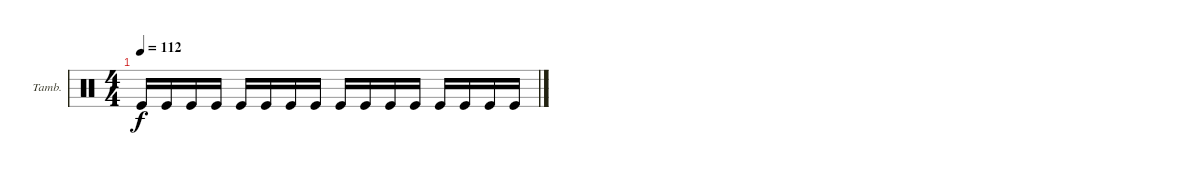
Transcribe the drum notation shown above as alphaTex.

\defaultSystemsLayout 4
\bracketExtendMode groupsimilarinstruments
\firstSystemTrackNameOrientation horizontal
\otherSystemsTrackNameOrientation horizontal
\track ("Tambourine" "Tamb.") {instrument percussion}
\staff {score}
\articulation defaults
\ts (4 4)
\tempo 112
\clef neutral
\ks c "Kick (hit)".16{dy f} "Kick (hit)".16 "Kick (hit)".16 "Kick (hit)".16 "Kick (hit)".16 "Kick (hit)".16 "Kick (hit)".16 "Kick (hit)".16 "Kick (hit)".16 "Kick (hit)".16 "Kick (hit)".16 "Kick (hit)".16 "Kick (hit)".16 "Kick (hit)".16 "Kick (hit)".16 "Kick (hit)".16
